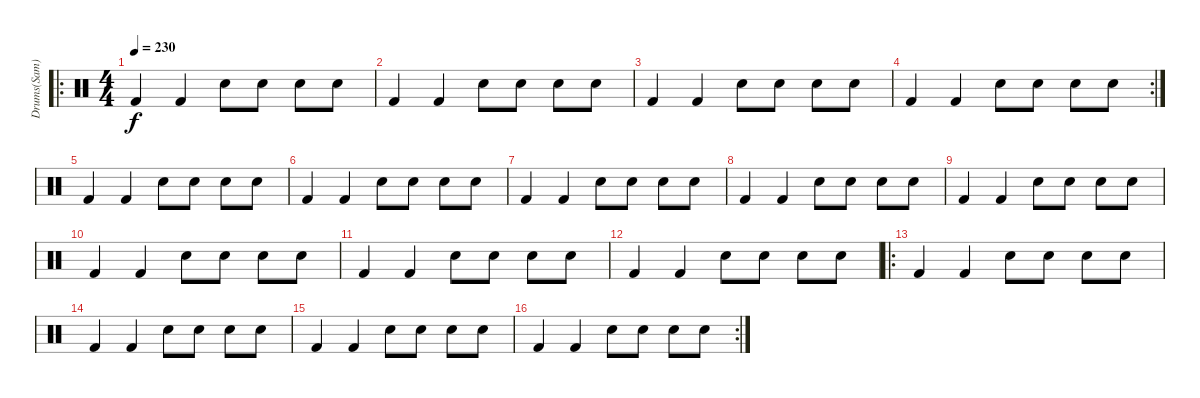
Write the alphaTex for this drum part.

\track ("Drums(Sam)" "Drums(Sam)") {instrument percussion}
\staff {score}
\articulation defaults
\ro
\ts (4 4)
\tempo 230
\clef neutral
\ks c "Kick (hit) 2".4{dy f} "Kick (hit) 2".4 "Snare (hit) 2".8 "Snare (hit) 2".8 "Snare (hit) 2".8 "Snare (hit) 2".8
|
"Kick (hit) 2".4 "Kick (hit) 2".4 "Snare (hit) 2".8 "Snare (hit) 2".8 "Snare (hit) 2".8 "Snare (hit) 2".8 |
"Kick (hit) 2".4 "Kick (hit) 2".4 "Snare (hit) 2".8 "Snare (hit) 2".8 "Snare (hit) 2".8 "Snare (hit) 2".8 |
\rc 2 "Kick (hit) 2".4 "Kick (hit) 2".4 "Snare (hit) 2".8 "Snare (hit) 2".8 "Snare (hit) 2".8 "Snare (hit) 2".8
|
"Kick (hit) 2".4 "Kick (hit) 2".4 "Snare (hit) 2".8 "Snare (hit) 2".8 "Snare (hit) 2".8 "Snare (hit) 2".8 |
"Kick (hit) 2".4 "Kick (hit) 2".4 "Snare (hit) 2".8 "Snare (hit) 2".8 "Snare (hit) 2".8 "Snare (hit) 2".8 |
"Kick (hit) 2".4 "Kick (hit) 2".4 "Snare (hit) 2".8 "Snare (hit) 2".8 "Snare (hit) 2".8 "Snare (hit) 2".8 |
"Kick (hit) 2".4 "Kick (hit) 2".4 "Snare (hit) 2".8 "Snare (hit) 2".8 "Snare (hit) 2".8 "Snare (hit) 2".8 |
"Kick (hit) 2".4 "Kick (hit) 2".4 "Snare (hit) 2".8 "Snare (hit) 2".8 "Snare (hit) 2".8 "Snare (hit) 2".8 |
"Kick (hit) 2".4 "Kick (hit) 2".4 "Snare (hit) 2".8 "Snare (hit) 2".8 "Snare (hit) 2".8 "Snare (hit) 2".8 |
"Kick (hit) 2".4 "Kick (hit) 2".4 "Snare (hit) 2".8 "Snare (hit) 2".8 "Snare (hit) 2".8 "Snare (hit) 2".8 |
"Kick (hit) 2".4 "Kick (hit) 2".4 "Snare (hit) 2".8 "Snare (hit) 2".8 "Snare (hit) 2".8 "Snare (hit) 2".8 |
\ro "Kick (hit) 2".4 "Kick (hit) 2".4 "Snare (hit) 2".8 "Snare (hit) 2".8 "Snare (hit) 2".8 "Snare (hit) 2".8
|
"Kick (hit) 2".4 "Kick (hit) 2".4 "Snare (hit) 2".8 "Snare (hit) 2".8 "Snare (hit) 2".8 "Snare (hit) 2".8 |
"Kick (hit) 2".4 "Kick (hit) 2".4 "Snare (hit) 2".8 "Snare (hit) 2".8 "Snare (hit) 2".8 "Snare (hit) 2".8 |
\rc 2 "Kick (hit) 2".4 "Kick (hit) 2".4 "Snare (hit) 2".8 "Snare (hit) 2".8 "Snare (hit) 2".8 "Snare (hit) 2".8
